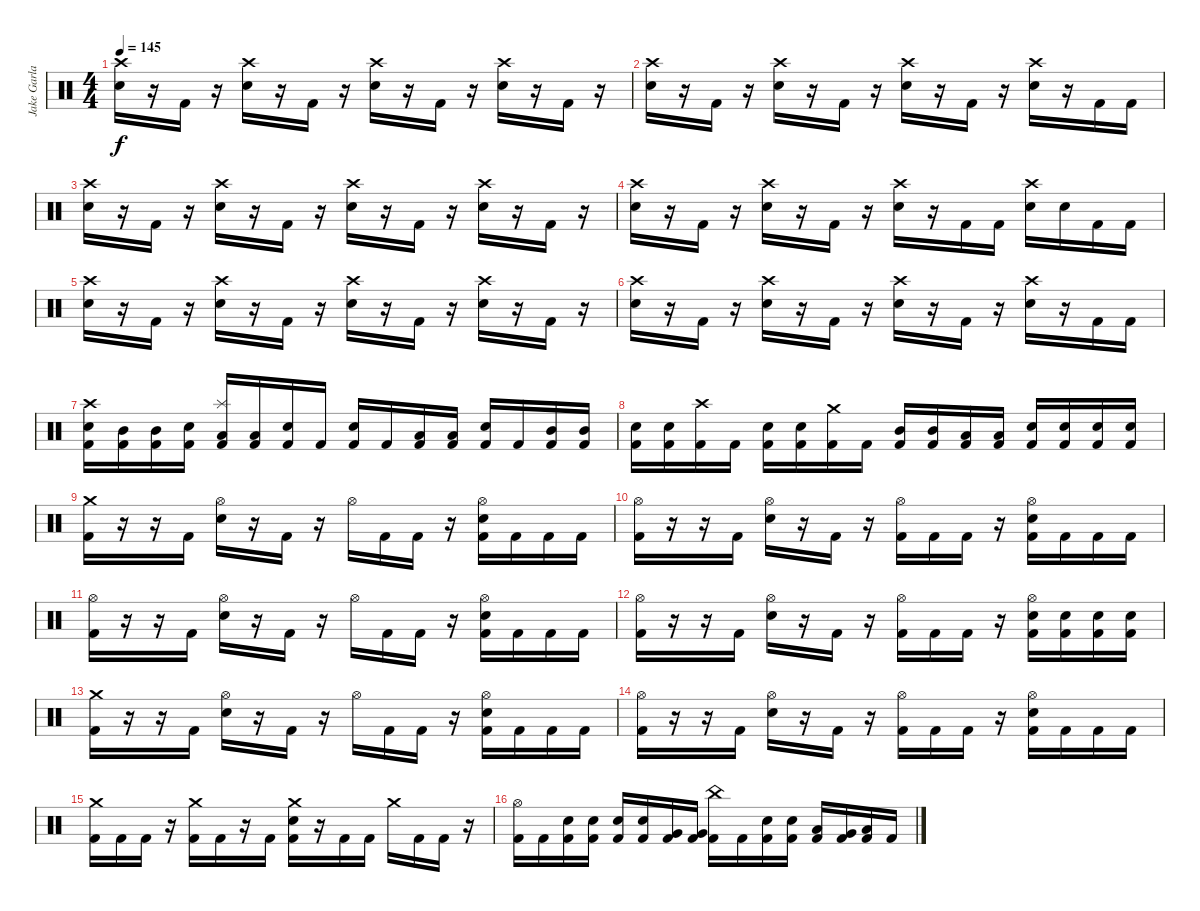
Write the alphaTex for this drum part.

\track ("Jake Garland" "Jake Garla") {instrument percussion}
\staff {score}
\articulation defaults
\ts (4 4)
\tempo 145
\clef neutral
\ks c
("Crash high (hit)" "Electric Snare (hit)").16{dy f} r.16 "Kick (hit) 2".16 r.16 ("Crash high (hit)" "Electric Snare (hit)").16 r.16 "Kick (hit) 2".16 r.16 ("Crash high (hit)" "Electric Snare (hit)").16 r.16 "Kick (hit) 2".16 r.16 ("Crash high (hit)" "Electric Snare (hit)").16 r.16 "Kick (hit) 2".16 r.16 |
("Crash high (hit)" "Electric Snare (hit)").16 r.16 "Kick (hit) 2".16 r.16 ("Crash high (hit)" "Electric Snare (hit)").16 r.16 "Kick (hit) 2".16 r.16 ("Crash high (hit)" "Electric Snare (hit)").16 r.16 "Kick (hit) 2".16 r.16 ("Crash high (hit)" "Electric Snare (hit)").16 r.16 "Kick (hit) 2".16 "Kick (hit) 2".16 |
("Crash high (hit)" "Electric Snare (hit)").16 r.16 "Kick (hit) 2".16 r.16 ("Crash high (hit)" "Electric Snare (hit)").16 r.16 "Kick (hit) 2".16 r.16 ("Crash high (hit)" "Electric Snare (hit)").16 r.16 "Kick (hit) 2".16 r.16 ("Crash high (hit)" "Electric Snare (hit)").16 r.16 "Kick (hit) 2".16 r.16 |
("Crash high (hit)" "Electric Snare (hit)").16 r.16 "Kick (hit) 2".16 r.16 ("Crash high (hit)" "Electric Snare (hit)").16 r.16 "Kick (hit) 2".16 r.16 ("Crash high (hit)" "Electric Snare (hit)").16 r.16 "Kick (hit) 2".16 "Kick (hit) 2".16 ("Crash high (hit)" "Electric Snare (hit)").16 "Electric Snare (hit)".16 "Kick (hit) 2".16 "Kick (hit) 2".16 |
("Crash high (hit)" "Electric Snare (hit)").16 r.16 "Kick (hit) 2".16 r.16 ("Crash high (hit)" "Electric Snare (hit)").16 r.16 "Kick (hit) 2".16 r.16 ("Crash high (hit)" "Electric Snare (hit)").16 r.16 "Kick (hit) 2".16 r.16 ("Crash high (hit)" "Electric Snare (hit)").16 r.16 "Kick (hit) 2".16 r.16 |
("Crash high (hit)" "Electric Snare (hit)").16 r.16 "Kick (hit) 2".16 r.16 ("Crash high (hit)" "Electric Snare (hit)").16 r.16 "Kick (hit) 2".16 r.16 ("Crash high (hit)" "Electric Snare (hit)").16 r.16 "Kick (hit) 2".16 r.16 ("Crash high (hit)" "Electric Snare (hit)").16 r.16 "Kick (hit) 2".16 "Kick (hit) 2".16 |
("Crash high (hit)" "Electric Snare (hit)" "Kick (hit) 2").16 ("Mid Tom (hit)" "Kick (hit) 2").16 ("Mid Tom (hit)" "Kick (hit) 2").16 ("Electric Snare (hit)" "Kick (hit) 2").16 ("Splash (hit)" "Low Tom (hit)" "Kick (hit) 2").16 ("Low Tom (hit)" "Kick (hit) 2").16 ("Electric Snare (hit)" "Kick (hit) 2").16 "Kick (hit) 2".16 ("Electric Snare (hit)" "Kick (hit) 2").16 "Kick (hit) 2".16 ("Low Tom (hit)" "Kick (hit) 2").16 ("Low Tom (hit)" "Kick (hit) 2").16 ("Electric Snare (hit)" "Kick (hit) 2").16 "Kick (hit) 2".16 ("Mid Tom (hit)" "Kick (hit) 2").16 ("Mid Tom (hit)" "Kick (hit) 2").16 |
("Electric Snare (hit)" "Kick (hit) 2").16 ("Electric Snare (hit)" "Kick (hit) 2").16 ("Crash high (hit)" "Kick (hit) 2").16 "Kick (hit) 2".16 ("Electric Snare (hit)" "Kick (hit) 2").16 ("Electric Snare (hit)" "Kick (hit) 2").16 ("Crash medium (hit)" "Kick (hit) 2").16 "Kick (hit) 2".16 ("Mid Tom (hit)" "Kick (hit) 2").16 ("Mid Tom (hit)" "Kick (hit) 2").16 ("Low Tom (hit)" "Kick (hit) 2").16 ("Low Tom (hit)" "Kick (hit) 2").16 ("Electric Snare (hit)" "Kick (hit) 2").16 ("Electric Snare (hit)" "Kick (hit) 2").16 ("Electric Snare (hit)" "Kick (hit) 2").16 ("Electric Snare (hit)" "Kick (hit) 2").16 |
("Crash medium (hit)" "Kick (hit) 2").16 r.16 r.16 "Kick (hit) 2".16 ("Hi-Hat (open)" "Electric Snare (hit)").16 r.16 "Kick (hit) 2".16 r.16 "Hi-Hat (open)".16 "Kick (hit) 2".16 "Kick (hit) 2".16 r.16 ("Hi-Hat (open)" "Electric Snare (hit)" "Kick (hit) 2").16 "Kick (hit) 2".16 "Kick (hit) 2".16 "Kick (hit) 2".16 |
("Hi-Hat (open)" "Kick (hit) 2").16 r.16 r.16 "Kick (hit) 2".16 ("Hi-Hat (open)" "Electric Snare (hit)").16 r.16 "Kick (hit) 2".16 r.16 ("Hi-Hat (open)" "Kick (hit) 2").16 "Kick (hit) 2".16 "Kick (hit) 2".16 r.16 ("Hi-Hat (open)" "Electric Snare (hit)" "Kick (hit) 2").16 "Kick (hit) 2".16 "Kick (hit) 2".16 "Kick (hit) 2".16 |
("Hi-Hat (open)" "Kick (hit) 2").16 r.16 r.16 "Kick (hit) 2".16 ("Hi-Hat (open)" "Electric Snare (hit)").16 r.16 "Kick (hit) 2".16 r.16 "Hi-Hat (open)".16 "Kick (hit) 2".16 "Kick (hit) 2".16 r.16 ("Hi-Hat (open)" "Electric Snare (hit)" "Kick (hit) 2").16 "Kick (hit) 2".16 "Kick (hit) 2".16 "Kick (hit) 2".16 |
("Hi-Hat (open)" "Kick (hit) 2").16 r.16 r.16 "Kick (hit) 2".16 ("Hi-Hat (open)" "Electric Snare (hit)").16 r.16 "Kick (hit) 2".16 r.16 ("Hi-Hat (open)" "Kick (hit) 2").16 "Kick (hit) 2".16 "Kick (hit) 2".16 r.16 ("Hi-Hat (open)" "Electric Snare (hit)" "Kick (hit) 2").16 ("Electric Snare (hit)" "Kick (hit) 2").16 ("Electric Snare (hit)" "Kick (hit) 2").16 ("Electric Snare (hit)" "Kick (hit) 2").16 |
("Crash medium (hit)" "Kick (hit) 2").16 r.16 r.16 "Kick (hit) 2".16 ("Hi-Hat (open)" "Electric Snare (hit)").16 r.16 "Kick (hit) 2".16 r.16 "Hi-Hat (open)".16 "Kick (hit) 2".16 "Kick (hit) 2".16 r.16 ("Hi-Hat (open)" "Electric Snare (hit)" "Kick (hit) 2").16 "Kick (hit) 2".16 "Kick (hit) 2".16 "Kick (hit) 2".16 |
("Hi-Hat (open)" "Kick (hit) 2").16 r.16 r.16 "Kick (hit) 2".16 ("Hi-Hat (open)" "Electric Snare (hit)").16 r.16 "Kick (hit) 2".16 r.16 ("Hi-Hat (open)" "Kick (hit) 2").16 "Kick (hit) 2".16 "Kick (hit) 2".16 r.16 ("Hi-Hat (open)" "Electric Snare (hit)" "Kick (hit) 2").16 "Kick (hit) 2".16 "Kick (hit) 2".16 "Kick (hit) 2".16 |
("Crash medium (hit)" "Kick (hit) 2").16 "Kick (hit) 2".16 "Kick (hit) 2".16 r.16 ("Crash medium (hit)" "Kick (hit) 2").16 "Kick (hit) 2".16 r.16 "Kick (hit) 2".16 ("Crash medium (hit)" "Electric Snare (hit)" "Kick (hit) 2").16 r.16 "Kick (hit) 2".16 "Kick (hit) 2".16 "Crash medium (hit)".16 "Kick (hit) 2".16 "Kick (hit) 2".16 r.16 |
("Hi-Hat (open)" "Kick (hit) 2").16 "Kick (hit) 2".16 ("Electric Snare (hit)" "Kick (hit) 2").16 ("Electric Snare (hit)" "Kick (hit) 2").16 ("Electric Snare (hit)" "Kick (hit) 2").16 ("Electric Snare (hit)" "Kick (hit) 2").16 ("Very Low Tom (hit)" "Kick (hit) 2").16 ("Very Low Tom (hit)" "Kick (hit) 2").16 ("China (hit)" "Kick (hit) 2").16 "Kick (hit) 2".16 ("Electric Snare (hit)" "Kick (hit) 2").16 ("Electric Snare (hit)" "Kick (hit) 2").16 ("Low Tom (hit)" "Kick (hit) 2").16 ("Very Low Tom (hit)" "Kick (hit) 2").16 ("Low Floor Tom (hit)" "Kick (hit) 2").16 "Kick (hit) 2".16
